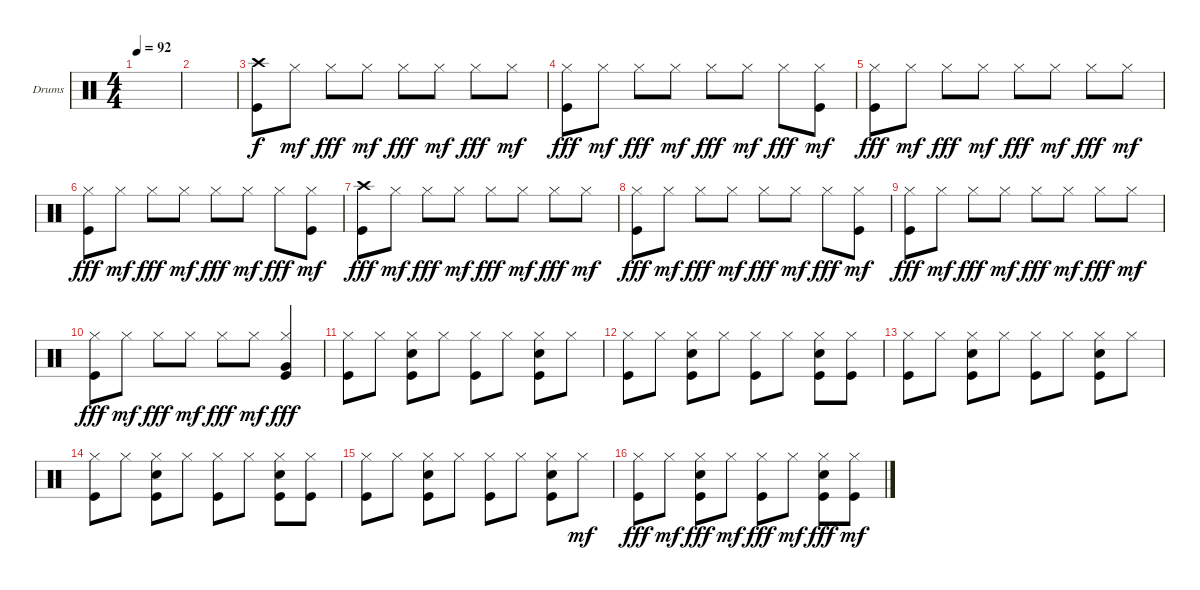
\defaultSystemsLayout 4
\bracketExtendMode groupsimilarinstruments
\firstSystemTrackNameOrientation horizontal
\otherSystemsTrackNameOrientation horizontal
\track ("Drumkit" "Drums") {instrument percussion}
\staff {score}
\articulation defaults
\ts (4 4)
\tempo 92
\clef neutral
\scale
0.333333
\ks c
|
\scale
0.333333 |
("Kick (hit)" "Crash high (hit)").8 "Hi-Hat (closed)".8{dy mf} "Hi-Hat (closed)".8{dy fff} "Hi-Hat (closed)".8{dy mf} "Hi-Hat (closed)".8{dy fff} "Hi-Hat (closed)".8{dy mf} "Hi-Hat (closed)".8{dy fff} "Hi-Hat (closed)".8{dy mf} |
("Hi-Hat (closed)" "Kick (hit)").8{dy fff} "Hi-Hat (closed)".8{dy mf} "Hi-Hat (closed)".8{dy fff} "Hi-Hat (closed)".8{dy mf} "Hi-Hat (closed)".8{dy fff} "Hi-Hat (closed)".8{dy mf} "Hi-Hat (closed)".8{dy fff} ("Hi-Hat (closed)" "Kick (hit)").8{dy mf} |
("Hi-Hat (closed)" "Kick (hit)").8{dy fff} "Hi-Hat (closed)".8{dy mf} "Hi-Hat (closed)".8{dy fff} "Hi-Hat (closed)".8{dy mf} "Hi-Hat (closed)".8{dy fff} "Hi-Hat (closed)".8{dy mf} "Hi-Hat (closed)".8{dy fff} "Hi-Hat (closed)".8{dy mf} |
("Hi-Hat (closed)" "Kick (hit)").8{dy fff} "Hi-Hat (closed)".8{dy mf} "Hi-Hat (closed)".8{dy fff} "Hi-Hat (closed)".8{dy mf} "Hi-Hat (closed)".8{dy fff} "Hi-Hat (closed)".8{dy mf} "Hi-Hat (closed)".8{dy fff} ("Hi-Hat (closed)" "Kick (hit)").8{dy mf} |
("Kick (hit)" "Crash high (hit)").8{dy fff} "Hi-Hat (closed)".8{dy mf} "Hi-Hat (closed)".8{dy fff} "Hi-Hat (closed)".8{dy mf} "Hi-Hat (closed)".8{dy fff} "Hi-Hat (closed)".8{dy mf} "Hi-Hat (closed)".8{dy fff} "Hi-Hat (closed)".8{dy mf} |
("Hi-Hat (closed)" "Kick (hit)").8{dy fff} "Hi-Hat (closed)".8{dy mf} "Hi-Hat (closed)".8{dy fff} "Hi-Hat (closed)".8{dy mf} "Hi-Hat (closed)".8{dy fff} "Hi-Hat (closed)".8{dy mf} "Hi-Hat (closed)".8{dy fff} ("Hi-Hat (closed)" "Kick (hit)").8{dy mf} |
("Kick (hit)" "Hi-Hat (closed)").8{dy fff} "Hi-Hat (closed)".8{dy mf} "Hi-Hat (closed)".8{dy fff} "Hi-Hat (closed)".8{dy mf} "Hi-Hat (closed)".8{dy fff} "Hi-Hat (closed)".8{dy mf} "Hi-Hat (closed)".8{dy fff} "Hi-Hat (closed)".8{dy mf} |
("Kick (hit)" "Hi-Hat (closed)").8{dy fff} "Hi-Hat (closed)".8{dy mf} "Hi-Hat (closed)".8{dy fff} "Hi-Hat (closed)".8{dy mf} "Hi-Hat (closed)".8{dy fff} "Hi-Hat (closed)".8{dy mf} ("Hi-Hat (closed)" "Kick (hit)" "Very Low Tom (hit)").4{dy fff} |
\scale
0.333333 ("Kick (hit)" "Hi-Hat (closed)").8 "Hi-Hat (closed)".8 ("Snare (hit) 2" "Kick (hit)" "Hi-Hat (closed)").8 "Hi-Hat (closed)".8 ("Kick (hit)" "Hi-Hat (closed)").8 "Hi-Hat (closed)".8 ("Snare (hit) 2" "Kick (hit)" "Hi-Hat (closed)").8 "Hi-Hat (closed)".8 |
\scale
0.333333 ("Kick (hit)" "Hi-Hat (closed)").8 "Hi-Hat (closed)".8 ("Snare (hit) 2" "Kick (hit)" "Hi-Hat (closed)").8 "Hi-Hat (closed)".8 ("Kick (hit)" "Hi-Hat (closed)").8 "Hi-Hat (closed)".8 ("Snare (hit) 2" "Kick (hit)" "Hi-Hat (closed)").8 ("Hi-Hat (closed)" "Kick (hit)").8 |
\scale
0.333333 ("Kick (hit)" "Hi-Hat (closed)").8 "Hi-Hat (closed)".8 ("Snare (hit) 2" "Kick (hit)" "Hi-Hat (closed)").8 "Hi-Hat (closed)".8 ("Kick (hit)" "Hi-Hat (closed)").8 "Hi-Hat (closed)".8 ("Snare (hit) 2" "Kick (hit)" "Hi-Hat (closed)").8 "Hi-Hat (closed)".8 |
\scale
0.333333 ("Kick (hit)" "Hi-Hat (closed)").8 "Hi-Hat (closed)".8 ("Snare (hit) 2" "Kick (hit)" "Hi-Hat (closed)").8 "Hi-Hat (closed)".8 ("Kick (hit)" "Hi-Hat (closed)").8 "Hi-Hat (closed)".8 ("Snare (hit) 2" "Kick (hit)" "Hi-Hat (closed)").8 ("Hi-Hat (closed)" "Kick (hit)").8 |
\scale
0.333333 ("Kick (hit)" "Hi-Hat (closed)").8 "Hi-Hat (closed)".8 ("Snare (hit) 2" "Kick (hit)" "Hi-Hat (closed)").8 "Hi-Hat (closed)".8 ("Kick (hit)" "Hi-Hat (closed)").8 "Hi-Hat (closed)".8 ("Snare (hit) 2" "Kick (hit)" "Hi-Hat (closed)").8 "Hi-Hat (closed)".8{dy mf} |
\scale
0.333333 ("Kick (hit)" "Hi-Hat (closed)").8{dy fff} "Hi-Hat (closed)".8{dy mf} ("Snare (hit) 2" "Kick (hit)" "Hi-Hat (closed)").8{dy fff} "Hi-Hat (closed)".8{dy mf} ("Kick (hit)" "Hi-Hat (closed)").8{dy fff} "Hi-Hat (closed)".8{dy mf} ("Snare (hit) 2" "Kick (hit)" "Hi-Hat (closed)").8{dy fff} ("Hi-Hat (closed)" "Kick (hit)").8{dy mf}
